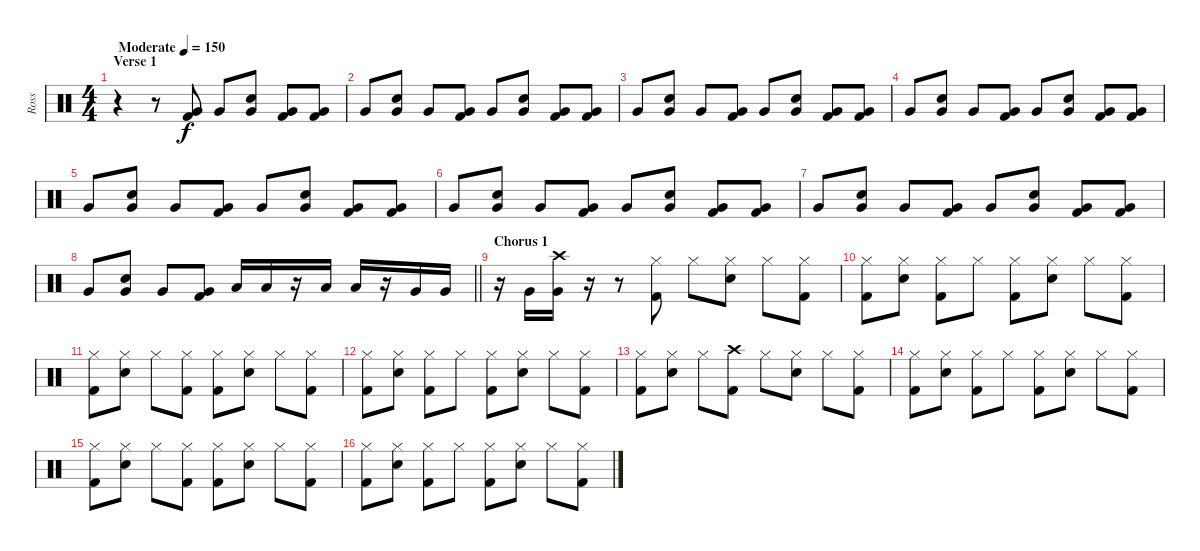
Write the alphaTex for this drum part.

\track ("Ross" "Ross") {instrument percussion}
\staff {score}
\articulation defaults
\ts (4 4)
\section ("" "Verse 1")
\tempo (150 "Moderate")
\clef neutral
\ks c
r.4{dy f} r.8 ("Very Low Tom (hit)" "Kick (hit) 2").8 "Very Low Tom (hit)".8 ("Very Low Tom (hit)" "Snare (hit) 2").8 ("Very Low Tom (hit)" "Kick (hit) 2").8 ("Very Low Tom (hit)" "Kick (hit) 2").8 |
"Very Low Tom (hit)".8 ("Very Low Tom (hit)" "Snare (hit) 2").8 "Very Low Tom (hit)".8 ("Very Low Tom (hit)" "Kick (hit) 2").8 "Very Low Tom (hit)".8 ("Very Low Tom (hit)" "Snare (hit) 2").8 ("Very Low Tom (hit)" "Kick (hit) 2").8 ("Very Low Tom (hit)" "Kick (hit) 2").8 |
"Very Low Tom (hit)".8 ("Very Low Tom (hit)" "Snare (hit) 2").8 "Very Low Tom (hit)".8 ("Very Low Tom (hit)" "Kick (hit) 2").8 "Very Low Tom (hit)".8 ("Very Low Tom (hit)" "Snare (hit) 2").8 ("Very Low Tom (hit)" "Kick (hit) 2").8 ("Very Low Tom (hit)" "Kick (hit) 2").8 |
"Very Low Tom (hit)".8 ("Very Low Tom (hit)" "Snare (hit) 2").8 "Very Low Tom (hit)".8 ("Very Low Tom (hit)" "Kick (hit) 2").8 "Very Low Tom (hit)".8 ("Very Low Tom (hit)" "Snare (hit) 2").8 ("Very Low Tom (hit)" "Kick (hit) 2").8 ("Very Low Tom (hit)" "Kick (hit) 2").8 |
"Very Low Tom (hit)".8 ("Very Low Tom (hit)" "Snare (hit) 2").8 "Very Low Tom (hit)".8 ("Very Low Tom (hit)" "Kick (hit) 2").8 "Very Low Tom (hit)".8 ("Very Low Tom (hit)" "Snare (hit) 2").8 ("Very Low Tom (hit)" "Kick (hit) 2").8 ("Very Low Tom (hit)" "Kick (hit) 2").8 |
"Very Low Tom (hit)".8 ("Very Low Tom (hit)" "Snare (hit) 2").8 "Very Low Tom (hit)".8 ("Very Low Tom (hit)" "Kick (hit) 2").8 "Very Low Tom (hit)".8 ("Very Low Tom (hit)" "Snare (hit) 2").8 ("Very Low Tom (hit)" "Kick (hit) 2").8 ("Very Low Tom (hit)" "Kick (hit) 2").8 |
"Very Low Tom (hit)".8 ("Very Low Tom (hit)" "Snare (hit) 2").8 "Very Low Tom (hit)".8 ("Very Low Tom (hit)" "Kick (hit) 2").8 "Very Low Tom (hit)".8 ("Very Low Tom (hit)" "Snare (hit) 2").8 ("Very Low Tom (hit)" "Kick (hit) 2").8 ("Very Low Tom (hit)" "Kick (hit) 2").8 |
\barLineRight lightlight "Very Low Tom (hit)".8
("Very Low Tom (hit)" "Snare (hit) 2").8 "Very Low Tom (hit)".8 ("Very Low Tom (hit)" "Kick (hit) 2").8 "Low Tom (hit)".16 "Low Tom (hit)".16 r.16 "Low Tom (hit)".16 "Low Tom (hit)".16 r.16 "Very Low Tom (hit)".16 "Very Low Tom (hit)".16 |
\section ("" "Chorus 1")
r.16 "Very Low Tom (hit)".16 ("Crash high (hit)" "Very Low Tom (hit)").16 r.16 r.8 ("Hi-Hat (closed)" "Kick (hit) 2").8 "Hi-Hat (closed)".8 ("Hi-Hat (closed)" "Snare (hit) 2").8 "Hi-Hat (closed)".8 ("Hi-Hat (closed)" "Kick (hit) 2").8 |
("Hi-Hat (closed)" "Kick (hit) 2").8 ("Hi-Hat (closed)" "Snare (hit) 2").8 ("Hi-Hat (closed)" "Kick (hit) 2").8 "Hi-Hat (closed)".8 ("Hi-Hat (closed)" "Kick (hit) 2").8 ("Hi-Hat (closed)" "Snare (hit) 2").8 "Hi-Hat (closed)".8 ("Hi-Hat (closed)" "Kick (hit) 2").8 |
("Hi-Hat (closed)" "Kick (hit) 2").8 ("Hi-Hat (closed)" "Snare (hit) 2").8 "Hi-Hat (closed)".8 ("Hi-Hat (closed)" "Kick (hit) 2").8 ("Hi-Hat (closed)" "Kick (hit) 2").8 ("Hi-Hat (closed)" "Snare (hit) 2").8 "Hi-Hat (closed)".8 ("Hi-Hat (closed)" "Kick (hit) 2").8 |
("Hi-Hat (closed)" "Kick (hit) 2").8 ("Hi-Hat (closed)" "Snare (hit) 2").8 ("Hi-Hat (closed)" "Kick (hit) 2").8 "Hi-Hat (closed)".8 ("Hi-Hat (closed)" "Kick (hit) 2").8 ("Hi-Hat (closed)" "Snare (hit) 2").8 "Hi-Hat (closed)".8 ("Hi-Hat (closed)" "Kick (hit) 2").8 |
("Hi-Hat (closed)" "Kick (hit) 2").8 ("Hi-Hat (closed)" "Snare (hit) 2").8 "Hi-Hat (closed)".8 ("Crash high (hit)" "Kick (hit) 2").8 "Hi-Hat (closed)".8 ("Hi-Hat (closed)" "Snare (hit) 2").8 "Hi-Hat (closed)".8 ("Hi-Hat (closed)" "Kick (hit) 2").8 |
("Hi-Hat (closed)" "Kick (hit) 2").8 ("Hi-Hat (closed)" "Snare (hit) 2").8 ("Hi-Hat (closed)" "Kick (hit) 2").8 "Hi-Hat (closed)".8 ("Hi-Hat (closed)" "Kick (hit) 2").8 ("Hi-Hat (closed)" "Snare (hit) 2").8 "Hi-Hat (closed)".8 ("Hi-Hat (closed)" "Kick (hit) 2").8 |
("Hi-Hat (closed)" "Kick (hit) 2").8 ("Hi-Hat (closed)" "Snare (hit) 2").8 "Hi-Hat (closed)".8 ("Hi-Hat (closed)" "Kick (hit) 2").8 ("Hi-Hat (closed)" "Kick (hit) 2").8 ("Hi-Hat (closed)" "Snare (hit) 2").8 "Hi-Hat (closed)".8 ("Hi-Hat (closed)" "Kick (hit) 2").8 |
("Hi-Hat (closed)" "Kick (hit) 2").8 ("Hi-Hat (closed)" "Snare (hit) 2").8 ("Hi-Hat (closed)" "Kick (hit) 2").8 "Hi-Hat (closed)".8 ("Hi-Hat (closed)" "Kick (hit) 2").8 ("Hi-Hat (closed)" "Snare (hit) 2").8 "Hi-Hat (closed)".8 ("Hi-Hat (closed)" "Kick (hit) 2").8
